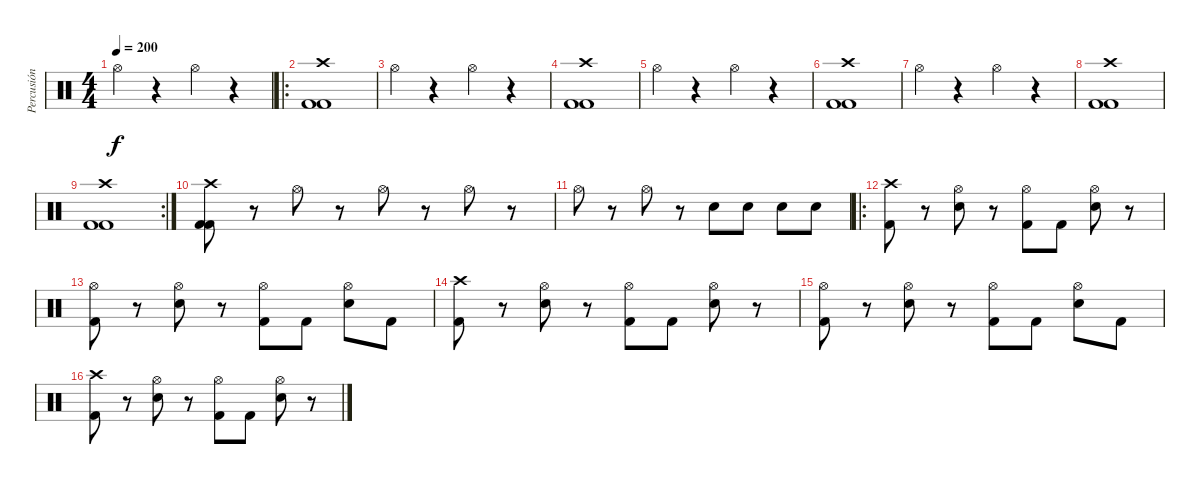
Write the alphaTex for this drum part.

\track ("Percusión" "Percusión") {instrument percussion}
\staff {score}
\articulation defaults
\ts (4 4)
\tempo 200
\clef neutral
\ks c "Hi-Hat (open)".4{dy f}
r.4 "Hi-Hat (open)".4 r.4 |
\ro
("Crash high (hit)" "Kick (hit) 2" "Kick (hit) 2").1 |
"Hi-Hat (open)".4 r.4 "Hi-Hat (open)".4 r.4 |
("Crash high (hit)" "Kick (hit) 2" "Kick (hit) 2").1 |
"Hi-Hat (open)".4 r.4 "Hi-Hat (open)".4 r.4 |
("Crash high (hit)" "Kick (hit) 2" "Kick (hit) 2").1 |
"Hi-Hat (open)".4 r.4 "Hi-Hat (open)".4 r.4 |
("Crash high (hit)" "Kick (hit) 2" "Kick (hit) 2").1 |
\rc 2
("Crash high (hit)" "Kick (hit) 2" "Kick (hit) 2").1 |
("Crash high (hit)" "Kick (hit) 2" "Kick (hit) 2").8 r.8 "Hi-Hat (open)".8 r.8 "Hi-Hat (open)".8 r.8 "Hi-Hat (open)".8 r.8 |
"Hi-Hat (open)".8 r.8 "Hi-Hat (open)".8 r.8 "Electric Snare (hit)".8 "Electric Snare (hit)".8 "Electric Snare (hit)".8 "Electric Snare (hit)".8 |
\ro
("Crash high (hit)" "Kick (hit) 2").8 r.8 ("Hi-Hat (open)" "Electric Snare (hit)").8 r.8 ("Hi-Hat (open)" "Kick (hit) 2").8 "Kick (hit) 2".8 ("Hi-Hat (open)" "Electric Snare (hit)").8 r.8 |
("Hi-Hat (open)" "Kick (hit) 2").8 r.8 ("Hi-Hat (open)" "Electric Snare (hit)").8 r.8 ("Hi-Hat (open)" "Kick (hit) 2").8 "Kick (hit) 2".8 ("Hi-Hat (open)" "Electric Snare (hit)").8 "Kick (hit) 2".8 |
("Crash high (hit)" "Kick (hit) 2").8 r.8 ("Hi-Hat (open)" "Electric Snare (hit)").8 r.8 ("Hi-Hat (open)" "Kick (hit) 2").8 "Kick (hit) 2".8 ("Hi-Hat (open)" "Electric Snare (hit)").8 r.8 |
("Hi-Hat (open)" "Kick (hit) 2").8 r.8 ("Hi-Hat (open)" "Electric Snare (hit)").8 r.8 ("Hi-Hat (open)" "Kick (hit) 2").8 "Kick (hit) 2".8 ("Hi-Hat (open)" "Electric Snare (hit)").8 "Kick (hit) 2".8 |
("Crash high (hit)" "Kick (hit) 2").8 r.8 ("Hi-Hat (open)" "Electric Snare (hit)").8 r.8 ("Hi-Hat (open)" "Kick (hit) 2").8 "Kick (hit) 2".8 ("Hi-Hat (open)" "Electric Snare (hit)").8 r.8
